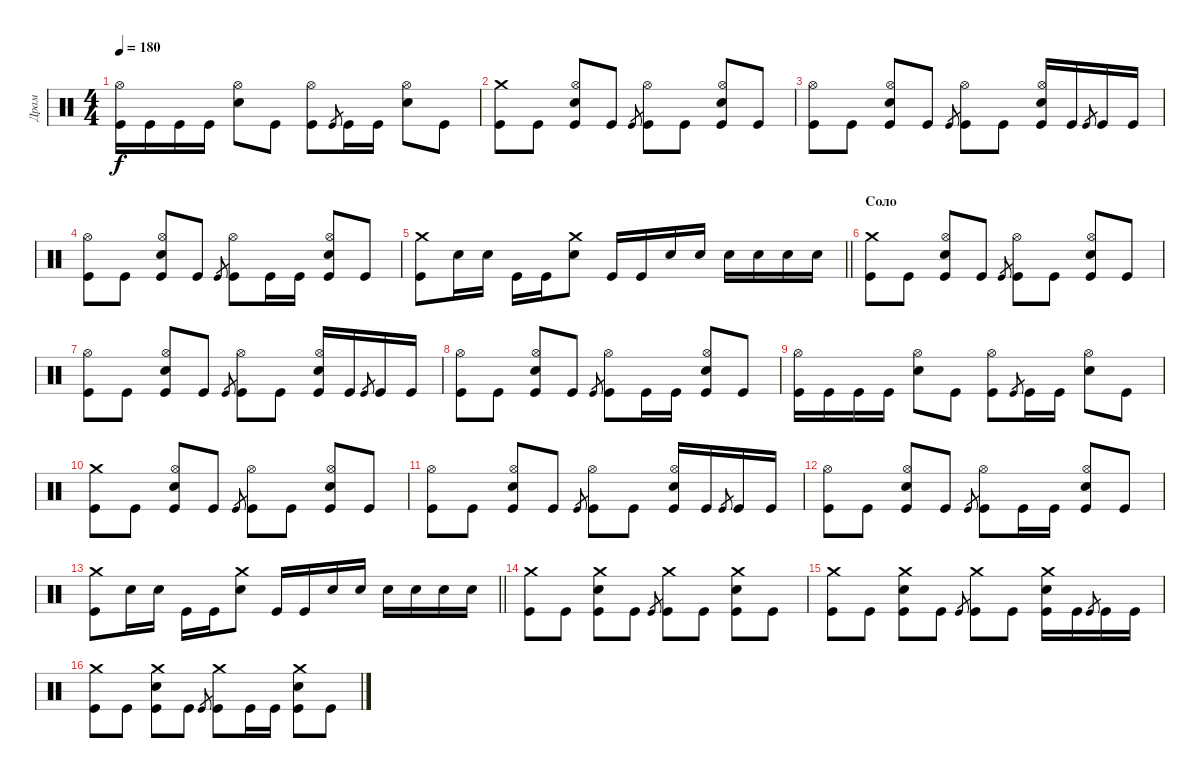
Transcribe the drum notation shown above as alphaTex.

\track ("Драм" "Драм") {instrument percussion}
\staff {score}
\articulation defaults
\ts (4 4)
\tempo 180
\clef neutral
\ks c
("Kick (hit)" "Hi-Hat (open)").16{dy f} "Kick (hit)".16 "Kick (hit)".16 "Kick (hit)".16 ("Electric Snare (hit)" "Hi-Hat (open)").8 "Kick (hit)".8 ("Kick (hit)" "Hi-Hat (open)").8 "Kick (hit)".8{gr} "Kick (hit)".16 "Kick (hit)".16 ("Electric Snare (hit)" "Hi-Hat (open)").8 "Kick (hit)".8 |
("Kick (hit)" "Crash medium (hit)").8 "Kick (hit)".8 ("Kick (hit)" "Electric Snare (hit)" "Hi-Hat (open)").8 "Kick (hit)".8 "Kick (hit)".8{gr} ("Kick (hit)" "Hi-Hat (open)").8 "Kick (hit)".8 ("Kick (hit)" "Electric Snare (hit)" "Hi-Hat (open)").8 "Kick (hit)".8 |
("Kick (hit)" "Hi-Hat (open)").8 "Kick (hit)".8 ("Kick (hit)" "Electric Snare (hit)" "Hi-Hat (open)").8 "Kick (hit)".8 "Kick (hit)".8{gr} ("Kick (hit)" "Hi-Hat (open)").8 "Kick (hit)".8 ("Kick (hit)" "Electric Snare (hit)" "Hi-Hat (open)").16 "Kick (hit)".16 "Kick (hit)".8{gr} "Kick (hit)".16 "Kick (hit)".16 |
("Kick (hit)" "Hi-Hat (open)").8 "Kick (hit)".8 ("Kick (hit)" "Electric Snare (hit)" "Hi-Hat (open)").8 "Kick (hit)".8 "Kick (hit)".8{gr} ("Kick (hit)" "Hi-Hat (open)").8 "Kick (hit)".16 "Kick (hit)".16 ("Kick (hit)" "Electric Snare (hit)" "Hi-Hat (open)").8 "Kick (hit)".8 |
\barLineRight lightlight
("Kick (hit)" "Crash medium (hit)").8 "Electric Snare (hit)".16 "Electric Snare (hit)".16 "Kick (hit)".16 "Kick (hit)".16 ("Electric Snare (hit)" "Crash medium (hit)").8 "Kick (hit)".16 "Kick (hit)".16 "Electric Snare (hit)".16 "Electric Snare (hit)".16 "Electric Snare (hit)".16 "Electric Snare (hit)".16 "Electric Snare (hit)".16 "Electric Snare (hit)".16 |
\section ("" "Соло")
("Kick (hit)" "Crash medium (hit)").8 "Kick (hit)".8 ("Kick (hit)" "Electric Snare (hit)" "Hi-Hat (open)").8 "Kick (hit)".8 "Kick (hit)".8{gr} ("Kick (hit)" "Hi-Hat (open)").8 "Kick (hit)".8 ("Kick (hit)" "Electric Snare (hit)" "Hi-Hat (open)").8 "Kick (hit)".8 |
("Kick (hit)" "Hi-Hat (open)").8 "Kick (hit)".8 ("Kick (hit)" "Electric Snare (hit)" "Hi-Hat (open)").8 "Kick (hit)".8 "Kick (hit)".8{gr} ("Kick (hit)" "Hi-Hat (open)").8 "Kick (hit)".8 ("Kick (hit)" "Electric Snare (hit)" "Hi-Hat (open)").16 "Kick (hit)".16 "Kick (hit)".8{gr} "Kick (hit)".16 "Kick (hit)".16 |
("Kick (hit)" "Hi-Hat (open)").8 "Kick (hit)".8 ("Kick (hit)" "Electric Snare (hit)" "Hi-Hat (open)").8 "Kick (hit)".8 "Kick (hit)".8{gr} ("Kick (hit)" "Hi-Hat (open)").8 "Kick (hit)".16 "Kick (hit)".16 ("Kick (hit)" "Electric Snare (hit)" "Hi-Hat (open)").8 "Kick (hit)".8 |
("Kick (hit)" "Hi-Hat (open)").16 "Kick (hit)".16 "Kick (hit)".16 "Kick (hit)".16 ("Electric Snare (hit)" "Hi-Hat (open)").8 "Kick (hit)".8 ("Kick (hit)" "Hi-Hat (open)").8 "Kick (hit)".8{gr} "Kick (hit)".16 "Kick (hit)".16 ("Electric Snare (hit)" "Hi-Hat (open)").8 "Kick (hit)".8 |
("Kick (hit)" "Crash medium (hit)").8 "Kick (hit)".8 ("Kick (hit)" "Electric Snare (hit)" "Hi-Hat (open)").8 "Kick (hit)".8 "Kick (hit)".8{gr} ("Kick (hit)" "Hi-Hat (open)").8 "Kick (hit)".8 ("Kick (hit)" "Electric Snare (hit)" "Hi-Hat (open)").8 "Kick (hit)".8 |
("Kick (hit)" "Hi-Hat (open)").8 "Kick (hit)".8 ("Kick (hit)" "Electric Snare (hit)" "Hi-Hat (open)").8 "Kick (hit)".8 "Kick (hit)".8{gr} ("Kick (hit)" "Hi-Hat (open)").8 "Kick (hit)".8 ("Kick (hit)" "Electric Snare (hit)" "Hi-Hat (open)").16 "Kick (hit)".16 "Kick (hit)".8{gr} "Kick (hit)".16 "Kick (hit)".16 |
("Kick (hit)" "Hi-Hat (open)").8 "Kick (hit)".8 ("Kick (hit)" "Electric Snare (hit)" "Hi-Hat (open)").8 "Kick (hit)".8 "Kick (hit)".8{gr} ("Kick (hit)" "Hi-Hat (open)").8 "Kick (hit)".16 "Kick (hit)".16 ("Kick (hit)" "Electric Snare (hit)" "Hi-Hat (open)").8 "Kick (hit)".8 |
\barLineRight lightlight
("Kick (hit)" "Crash medium (hit)").8 "Electric Snare (hit)".16 "Electric Snare (hit)".16 "Kick (hit)".16 "Kick (hit)".16 ("Electric Snare (hit)" "Crash medium (hit)").8 "Kick (hit)".16 "Kick (hit)".16 "Electric Snare (hit)".16 "Electric Snare (hit)".16 "Electric Snare (hit)".16 "Electric Snare (hit)".16 "Electric Snare (hit)".16 "Electric Snare (hit)".16 |
("Kick (hit)" "Crash medium (hit)").8 "Kick (hit)".8 ("Kick (hit)" "Electric Snare (hit)" "Crash medium (hit)").8 "Kick (hit)".8 "Kick (hit)".8{gr} ("Kick (hit)" "Crash medium (hit)").8 "Kick (hit)".8 ("Kick (hit)" "Electric Snare (hit)" "Crash medium (hit)").8 "Kick (hit)".8 |
("Kick (hit)" "Crash medium (hit)").8 "Kick (hit)".8 ("Kick (hit)" "Electric Snare (hit)" "Crash medium (hit)").8 "Kick (hit)".8 "Kick (hit)".8{gr} ("Kick (hit)" "Crash medium (hit)").8 "Kick (hit)".8 ("Kick (hit)" "Electric Snare (hit)" "Crash medium (hit)").16 "Kick (hit)".16 "Kick (hit)".8{gr} "Kick (hit)".16 "Kick (hit)".16 |
("Kick (hit)" "Crash medium (hit)").8 "Kick (hit)".8 ("Kick (hit)" "Electric Snare (hit)" "Crash medium (hit)").8 "Kick (hit)".8 "Kick (hit)".8{gr} ("Kick (hit)" "Crash medium (hit)").8 "Kick (hit)".16 "Kick (hit)".16 ("Kick (hit)" "Electric Snare (hit)" "Crash medium (hit)").8 "Kick (hit)".8
